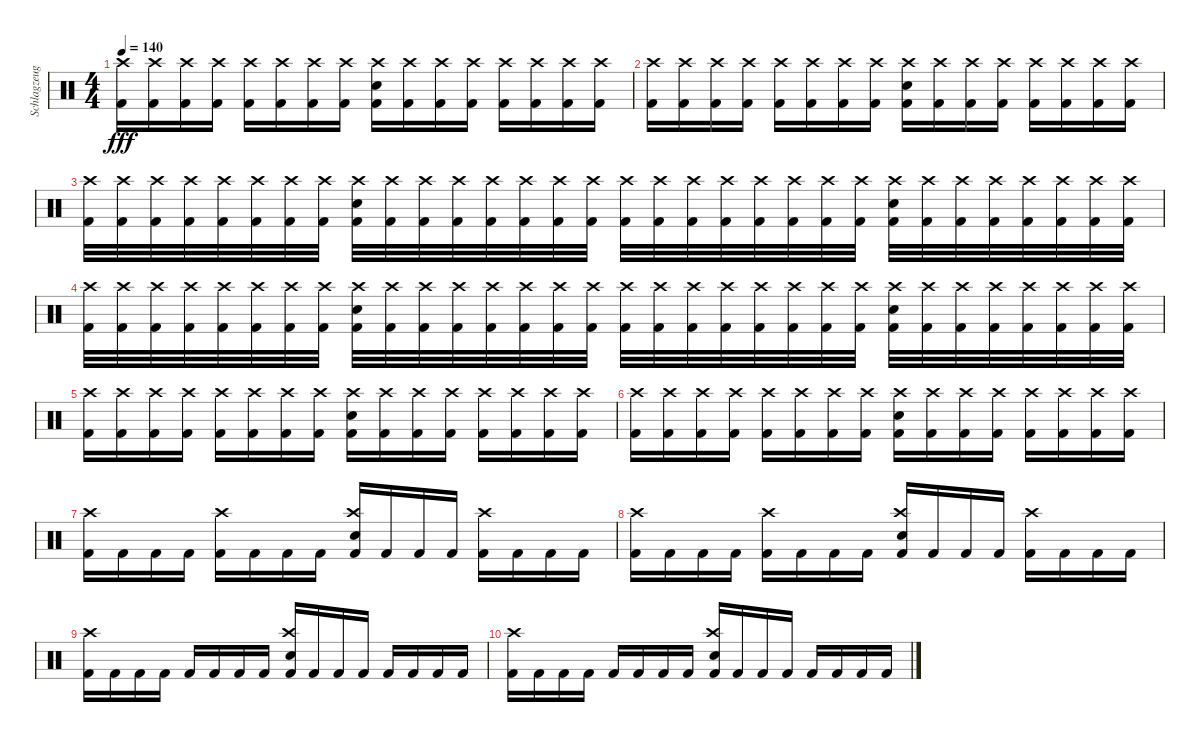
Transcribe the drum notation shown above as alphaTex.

\track ("Schlagzeug" "Schlagzeug") {instrument percussion}
\staff {score}
\articulation defaults
\ts (4 4)
\tempo 140
\clef neutral
\ks c
("Kick (hit) 2" "Crash high (hit)").16{dy fff} ("Kick (hit) 2" "Crash high (hit)").16 ("Kick (hit) 2" "Crash high (hit)").16 ("Kick (hit) 2" "Crash high (hit)").16 ("Kick (hit) 2" "Crash high (hit)").16 ("Kick (hit) 2" "Crash high (hit)").16 ("Kick (hit) 2" "Crash high (hit)").16 ("Kick (hit) 2" "Crash high (hit)").16 ("Kick (hit) 2" "Electric Snare (hit)" "Crash high (hit)").16 ("Kick (hit) 2" "Crash high (hit)").16 ("Kick (hit) 2" "Crash high (hit)").16 ("Kick (hit) 2" "Crash high (hit)").16 ("Kick (hit) 2" "Crash high (hit)").16 ("Kick (hit) 2" "Crash high (hit)").16 ("Kick (hit) 2" "Crash high (hit)").16 ("Kick (hit) 2" "Crash high (hit)").16 |
("Kick (hit) 2" "Crash high (hit)").16 ("Kick (hit) 2" "Crash high (hit)").16 ("Kick (hit) 2" "Crash high (hit)").16 ("Kick (hit) 2" "Crash high (hit)").16 ("Kick (hit) 2" "Crash high (hit)").16 ("Kick (hit) 2" "Crash high (hit)").16 ("Kick (hit) 2" "Crash high (hit)").16 ("Kick (hit) 2" "Crash high (hit)").16 ("Kick (hit) 2" "Electric Snare (hit)" "Crash high (hit)").16 ("Kick (hit) 2" "Crash high (hit)").16 ("Kick (hit) 2" "Crash high (hit)").16 ("Kick (hit) 2" "Crash high (hit)").16 ("Kick (hit) 2" "Crash high (hit)").16 ("Kick (hit) 2" "Crash high (hit)").16 ("Kick (hit) 2" "Crash high (hit)").16 ("Kick (hit) 2" "Crash high (hit)").16 |
("Kick (hit) 2" "Crash high (hit)").32 ("Kick (hit) 2" "Crash high (hit)").32 ("Kick (hit) 2" "Crash high (hit)").32 ("Kick (hit) 2" "Crash high (hit)").32 ("Kick (hit) 2" "Crash high (hit)").32 ("Kick (hit) 2" "Crash high (hit)").32 ("Kick (hit) 2" "Crash high (hit)").32 ("Kick (hit) 2" "Crash high (hit)").32 ("Kick (hit) 2" "Electric Snare (hit)" "Crash high (hit)").32 ("Kick (hit) 2" "Crash high (hit)").32 ("Kick (hit) 2" "Crash high (hit)").32 ("Kick (hit) 2" "Crash high (hit)").32 ("Kick (hit) 2" "Crash high (hit)").32 ("Kick (hit) 2" "Crash high (hit)").32 ("Kick (hit) 2" "Crash high (hit)").32 ("Kick (hit) 2" "Crash high (hit)").32 ("Kick (hit) 2" "Crash high (hit)").32 ("Kick (hit) 2" "Crash high (hit)").32 ("Kick (hit) 2" "Crash high (hit)").32 ("Kick (hit) 2" "Crash high (hit)").32 ("Kick (hit) 2" "Crash high (hit)").32 ("Kick (hit) 2" "Crash high (hit)").32 ("Kick (hit) 2" "Crash high (hit)").32 ("Kick (hit) 2" "Crash high (hit)").32 ("Kick (hit) 2" "Electric Snare (hit)" "Crash high (hit)").32 ("Kick (hit) 2" "Crash high (hit)").32 ("Kick (hit) 2" "Crash high (hit)").32 ("Kick (hit) 2" "Crash high (hit)").32 ("Kick (hit) 2" "Crash high (hit)").32 ("Kick (hit) 2" "Crash high (hit)").32 ("Kick (hit) 2" "Crash high (hit)").32 ("Kick (hit) 2" "Crash high (hit)").32 |
("Kick (hit) 2" "Crash high (hit)").32 ("Kick (hit) 2" "Crash high (hit)").32 ("Kick (hit) 2" "Crash high (hit)").32 ("Kick (hit) 2" "Crash high (hit)").32 ("Kick (hit) 2" "Crash high (hit)").32 ("Kick (hit) 2" "Crash high (hit)").32 ("Kick (hit) 2" "Crash high (hit)").32 ("Kick (hit) 2" "Crash high (hit)").32 ("Kick (hit) 2" "Electric Snare (hit)" "Crash high (hit)").32 ("Kick (hit) 2" "Crash high (hit)").32 ("Kick (hit) 2" "Crash high (hit)").32 ("Kick (hit) 2" "Crash high (hit)").32 ("Kick (hit) 2" "Crash high (hit)").32 ("Kick (hit) 2" "Crash high (hit)").32 ("Kick (hit) 2" "Crash high (hit)").32 ("Kick (hit) 2" "Crash high (hit)").32 ("Kick (hit) 2" "Crash high (hit)").32 ("Kick (hit) 2" "Crash high (hit)").32 ("Kick (hit) 2" "Crash high (hit)").32 ("Kick (hit) 2" "Crash high (hit)").32 ("Kick (hit) 2" "Crash high (hit)").32 ("Kick (hit) 2" "Crash high (hit)").32 ("Kick (hit) 2" "Crash high (hit)").32 ("Kick (hit) 2" "Crash high (hit)").32 ("Kick (hit) 2" "Electric Snare (hit)" "Crash high (hit)").32 ("Kick (hit) 2" "Crash high (hit)").32 ("Kick (hit) 2" "Crash high (hit)").32 ("Kick (hit) 2" "Crash high (hit)").32 ("Kick (hit) 2" "Crash high (hit)").32 ("Kick (hit) 2" "Crash high (hit)").32 ("Kick (hit) 2" "Crash high (hit)").32 ("Kick (hit) 2" "Crash high (hit)").32 |
("Kick (hit) 2" "Crash high (hit)").16 ("Kick (hit) 2" "Crash high (hit)").16 ("Kick (hit) 2" "Crash high (hit)").16 ("Kick (hit) 2" "Crash high (hit)").16 ("Kick (hit) 2" "Crash high (hit)").16 ("Kick (hit) 2" "Crash high (hit)").16 ("Kick (hit) 2" "Crash high (hit)").16 ("Kick (hit) 2" "Crash high (hit)").16 ("Kick (hit) 2" "Electric Snare (hit)" "Crash high (hit)").16 ("Kick (hit) 2" "Crash high (hit)").16 ("Kick (hit) 2" "Crash high (hit)").16 ("Kick (hit) 2" "Crash high (hit)").16 ("Kick (hit) 2" "Crash high (hit)").16 ("Kick (hit) 2" "Crash high (hit)").16 ("Kick (hit) 2" "Crash high (hit)").16 ("Kick (hit) 2" "Crash high (hit)").16 |
("Kick (hit) 2" "Crash high (hit)").16 ("Kick (hit) 2" "Crash high (hit)").16 ("Kick (hit) 2" "Crash high (hit)").16 ("Kick (hit) 2" "Crash high (hit)").16 ("Kick (hit) 2" "Crash high (hit)").16 ("Kick (hit) 2" "Crash high (hit)").16 ("Kick (hit) 2" "Crash high (hit)").16 ("Kick (hit) 2" "Crash high (hit)").16 ("Kick (hit) 2" "Electric Snare (hit)" "Crash high (hit)").16 ("Kick (hit) 2" "Crash high (hit)").16 ("Kick (hit) 2" "Crash high (hit)").16 ("Kick (hit) 2" "Crash high (hit)").16 ("Kick (hit) 2" "Crash high (hit)").16 ("Kick (hit) 2" "Crash high (hit)").16 ("Kick (hit) 2" "Crash high (hit)").16 ("Kick (hit) 2" "Crash high (hit)").16 |
("Kick (hit) 2" "Crash high (hit)").16 "Kick (hit) 2".16 "Kick (hit) 2".16 "Kick (hit) 2".16 ("Kick (hit) 2" "Crash high (hit)").16 "Kick (hit) 2".16 "Kick (hit) 2".16 "Kick (hit) 2".16 ("Kick (hit) 2" "Electric Snare (hit)" "Crash high (hit)").16 "Kick (hit) 2".16 "Kick (hit) 2".16 "Kick (hit) 2".16 ("Kick (hit) 2" "Crash high (hit)").16 "Kick (hit) 2".16 "Kick (hit) 2".16 "Kick (hit) 2".16 |
("Kick (hit) 2" "Crash high (hit)").16 "Kick (hit) 2".16 "Kick (hit) 2".16 "Kick (hit) 2".16 ("Kick (hit) 2" "Crash high (hit)").16 "Kick (hit) 2".16 "Kick (hit) 2".16 "Kick (hit) 2".16 ("Kick (hit) 2" "Electric Snare (hit)" "Crash high (hit)").16 "Kick (hit) 2".16 "Kick (hit) 2".16 "Kick (hit) 2".16 ("Kick (hit) 2" "Crash high (hit)").16 "Kick (hit) 2".16 "Kick (hit) 2".16 "Kick (hit) 2".16 |
("Kick (hit) 2" "Crash high (hit)").16 "Kick (hit) 2".16 "Kick (hit) 2".16 "Kick (hit) 2".16 "Kick (hit) 2".16 "Kick (hit) 2".16 "Kick (hit) 2".16 "Kick (hit) 2".16 ("Kick (hit) 2" "Electric Snare (hit)" "Crash high (hit)").16 "Kick (hit) 2".16 "Kick (hit) 2".16 "Kick (hit) 2".16 "Kick (hit) 2".16 "Kick (hit) 2".16 "Kick (hit) 2".16 "Kick (hit) 2".16 |
("Kick (hit) 2" "Crash high (hit)").16 "Kick (hit) 2".16 "Kick (hit) 2".16 "Kick (hit) 2".16 "Kick (hit) 2".16 "Kick (hit) 2".16 "Kick (hit) 2".16 "Kick (hit) 2".16 ("Kick (hit) 2" "Electric Snare (hit)" "Crash high (hit)").16 "Kick (hit) 2".16 "Kick (hit) 2".16 "Kick (hit) 2".16 "Kick (hit) 2".16 "Kick (hit) 2".16 "Kick (hit) 2".16 "Kick (hit) 2".16
